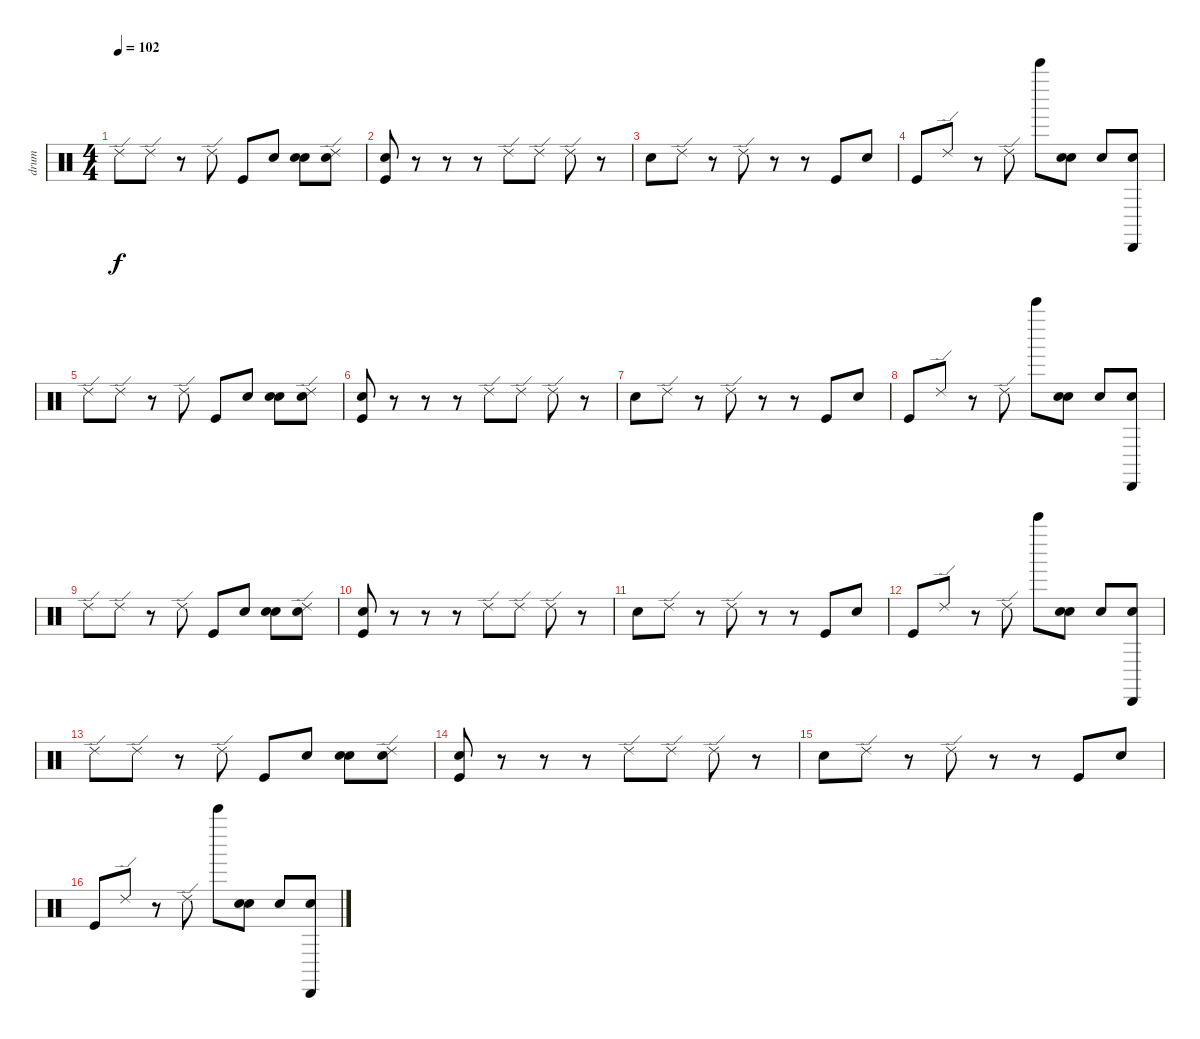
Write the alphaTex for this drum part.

\track ("drum" "drum") {instrument percussion}
\staff {score}
\articulation defaults
\ts (4 4)
\tempo 102
\clef neutral
\ks c "Ride (edge) 2".8{dy f} "Ride (edge) 2".8
r.8 "Ride (edge) 2".8 "Kick (hit)".8 "Snare (hit) 2".8 ("Snare (hit) 2" "Electric Snare (hit)").8 ("Snare (hit) 2" "Ride (edge) 2").8 |
("Electric Snare (hit)" "Kick (hit)").8 r.8 r.8 r.8 "Ride (edge) 2".8 "Ride (edge) 2".8 "Ride (edge) 2".8 r.8 |
"Snare (hit) 2".8 "Ride (edge) 2".8 r.8 "Ride (edge) 2".8 r.8 r.8 "Kick (hit)".8 "Snare (hit) 2".8 |
"Kick (hit)".8 "Ride (edge) 2".8 r.8 "Ride (edge) 2".8 "Bell Tree (hit)".8 ("Snare (hit) 2" "Electric Snare (hit)").8 "Snare (hit) 2".8 ("Electric Snare (hit)" "Cabasa (hit)").8 |
"Ride (edge) 2".8 "Ride (edge) 2".8 r.8 "Ride (edge) 2".8 "Kick (hit)".8 "Snare (hit) 2".8 ("Snare (hit) 2" "Electric Snare (hit)").8 ("Snare (hit) 2" "Ride (edge) 2").8 |
("Electric Snare (hit)" "Kick (hit)").8 r.8 r.8 r.8 "Ride (edge) 2".8 "Ride (edge) 2".8 "Ride (edge) 2".8 r.8 |
"Snare (hit) 2".8 "Ride (edge) 2".8 r.8 "Ride (edge) 2".8 r.8 r.8 "Kick (hit)".8 "Snare (hit) 2".8 |
"Kick (hit)".8 "Ride (edge) 2".8 r.8 "Ride (edge) 2".8 "Bell Tree (hit)".8 ("Snare (hit) 2" "Electric Snare (hit)").8 "Snare (hit) 2".8 ("Electric Snare (hit)" "Cabasa (hit)").8 |
"Ride (edge) 2".8 "Ride (edge) 2".8 r.8 "Ride (edge) 2".8 "Kick (hit)".8 "Snare (hit) 2".8 ("Snare (hit) 2" "Electric Snare (hit)").8 ("Snare (hit) 2" "Ride (edge) 2").8 |
("Electric Snare (hit)" "Kick (hit)").8 r.8 r.8 r.8 "Ride (edge) 2".8 "Ride (edge) 2".8 "Ride (edge) 2".8 r.8 |
"Snare (hit) 2".8 "Ride (edge) 2".8 r.8 "Ride (edge) 2".8 r.8 r.8 "Kick (hit)".8 "Snare (hit) 2".8 |
"Kick (hit)".8 "Ride (edge) 2".8 r.8 "Ride (edge) 2".8 "Bell Tree (hit)".8 ("Snare (hit) 2" "Electric Snare (hit)").8 "Snare (hit) 2".8 ("Electric Snare (hit)" "Cabasa (hit)").8 |
"Ride (edge) 2".8 "Ride (edge) 2".8 r.8 "Ride (edge) 2".8 "Kick (hit)".8 "Snare (hit) 2".8 ("Snare (hit) 2" "Electric Snare (hit)").8 ("Snare (hit) 2" "Ride (edge) 2").8 |
("Electric Snare (hit)" "Kick (hit)").8 r.8 r.8 r.8 "Ride (edge) 2".8 "Ride (edge) 2".8 "Ride (edge) 2".8 r.8 |
"Snare (hit) 2".8 "Ride (edge) 2".8 r.8 "Ride (edge) 2".8 r.8 r.8 "Kick (hit)".8 "Snare (hit) 2".8 |
"Kick (hit)".8 "Ride (edge) 2".8 r.8 "Ride (edge) 2".8 "Bell Tree (hit)".8 ("Snare (hit) 2" "Electric Snare (hit)").8 "Snare (hit) 2".8 ("Electric Snare (hit)" "Cabasa (hit)").8
